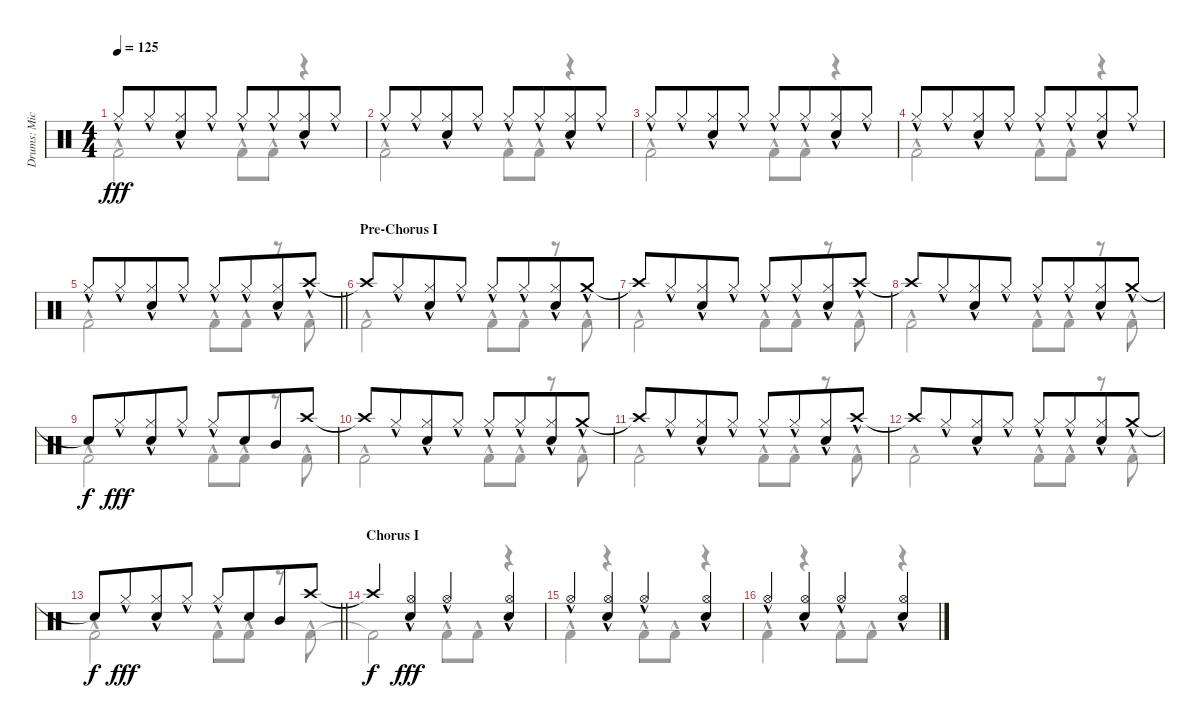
\track ("Drums: Mick" "Drums: Mic") {instrument percussion}
\staff {score}
\articulation defaults
\voice
\ts (4 4)
\tempo 125
\clef neutral
\ks c "Hi-Hat (closed)"{hac}.8{dy fff} "Hi-Hat (closed)"{hac}.8{beam merge}
("Hi-Hat (closed)"{hac} "Snare (hit) 2"{hac}).8 "Hi-Hat (closed)"{hac}.8 "Hi-Hat (closed)"{hac}.8 "Hi-Hat (closed)"{hac}.8{beam merge} ("Hi-Hat (closed)"{hac} "Snare (hit) 2"{hac}).8 "Hi-Hat (closed)"{hac}.8 |
"Hi-Hat (closed)"{hac}.8 "Hi-Hat (closed)"{hac}.8{beam merge} ("Hi-Hat (closed)"{hac} "Snare (hit) 2"{hac}).8 "Hi-Hat (closed)"{hac}.8 "Hi-Hat (closed)"{hac}.8 "Hi-Hat (closed)"{hac}.8{beam merge} ("Hi-Hat (closed)"{hac} "Snare (hit) 2"{hac}).8 "Hi-Hat (closed)"{hac}.8 |
"Hi-Hat (closed)"{hac}.8 "Hi-Hat (closed)"{hac}.8{beam merge} ("Hi-Hat (closed)"{hac} "Snare (hit) 2"{hac}).8 "Hi-Hat (closed)"{hac}.8 "Hi-Hat (closed)"{hac}.8 "Hi-Hat (closed)"{hac}.8{beam merge} ("Hi-Hat (closed)"{hac} "Snare (hit) 2"{hac}).8 "Hi-Hat (closed)"{hac}.8 |
"Hi-Hat (closed)"{hac}.8 "Hi-Hat (closed)"{hac}.8{beam merge} ("Hi-Hat (closed)"{hac} "Snare (hit) 2"{hac}).8 "Hi-Hat (closed)"{hac}.8 "Hi-Hat (closed)"{hac}.8 "Hi-Hat (closed)"{hac}.8{beam merge} ("Hi-Hat (closed)"{hac} "Snare (hit) 2"{hac}).8 "Hi-Hat (closed)"{hac}.8 |
\barLineRight lightlight "Hi-Hat (closed)"{hac}.8 "Hi-Hat (closed)"{hac}.8{beam merge}
("Hi-Hat (closed)"{hac} "Snare (hit) 2"{hac}).8 "Hi-Hat (closed)"{hac}.8 "Hi-Hat (closed)"{hac}.8 "Hi-Hat (closed)"{hac}.8{beam merge} ("Hi-Hat (closed)"{hac} "Snare (hit) 2"{hac}).8 "Crash high (hit)"{hac}.8 |
\section ("" "Pre-Chorus I")
"Crash high (hit)"{t}.8 "Hi-Hat (closed)"{hac}.8{beam merge} ("Hi-Hat (closed)"{hac} "Snare (hit) 2"{hac}).8 "Hi-Hat (closed)"{hac}.8 "Hi-Hat (closed)"{hac}.8 "Hi-Hat (closed)"{hac}.8{beam merge} ("Hi-Hat (closed)"{hac} "Snare (hit) 2"{hac}).8 "Crash medium (hit)"{hac}.8 |
"Crash high (hit)"{t}.8 "Hi-Hat (closed)"{hac}.8{beam merge} ("Hi-Hat (closed)"{hac} "Snare (hit) 2"{hac}).8 "Hi-Hat (closed)"{hac}.8 "Hi-Hat (closed)"{hac}.8 "Hi-Hat (closed)"{hac}.8{beam merge} ("Hi-Hat (closed)"{hac} "Snare (hit) 2"{hac}).8 "Crash high (hit)"{hac}.8 |
"Crash high (hit)"{t}.8 "Hi-Hat (closed)"{hac}.8{beam merge} ("Hi-Hat (closed)"{hac} "Snare (hit) 2"{hac}).8 "Hi-Hat (closed)"{hac}.8 "Hi-Hat (closed)"{hac}.8 "Hi-Hat (closed)"{hac}.8{beam merge} ("Hi-Hat (closed)"{hac} "Snare (hit) 2"{hac}).8 "Crash medium (hit)"{hac}.8 |
"Snare (hit)"{t}.8{dy f} "Hi-Hat (closed)"{hac}.8{dy fff beam merge} ("Hi-Hat (closed)"{hac} "Snare (hit) 2"{hac}).8 "Hi-Hat (closed)"{hac}.8 "Hi-Hat (closed)"{hac}.8 "Snare (hit) 2".8{beam merge} "Mid Tom (hit)".8 "Crash high (hit)".8 |
"Crash high (hit)"{t}.8 "Hi-Hat (closed)"{hac}.8{beam merge} ("Hi-Hat (closed)"{hac} "Snare (hit) 2"{hac}).8 "Hi-Hat (closed)"{hac}.8 "Hi-Hat (closed)"{hac}.8 "Hi-Hat (closed)"{hac}.8{beam merge} ("Hi-Hat (closed)"{hac} "Snare (hit) 2"{hac}).8 "Crash medium (hit)"{hac}.8 |
"Crash high (hit)"{t}.8 "Hi-Hat (closed)"{hac}.8{beam merge} ("Hi-Hat (closed)"{hac} "Snare (hit) 2"{hac}).8 "Hi-Hat (closed)"{hac}.8 "Hi-Hat (closed)"{hac}.8 "Hi-Hat (closed)"{hac}.8{beam merge} ("Hi-Hat (closed)"{hac} "Snare (hit) 2"{hac}).8 "Crash high (hit)"{hac}.8 |
"Crash high (hit)"{t}.8 "Hi-Hat (closed)"{hac}.8{beam merge} ("Hi-Hat (closed)"{hac} "Snare (hit) 2"{hac}).8 "Hi-Hat (closed)"{hac}.8 "Hi-Hat (closed)"{hac}.8 "Hi-Hat (closed)"{hac}.8{beam merge} ("Hi-Hat (closed)"{hac} "Snare (hit) 2"{hac}).8 "Crash medium (hit)"{hac}.8 |
\barLineRight lightlight "Snare (hit)"{t}.8{dy f} "Hi-Hat (closed)"{hac}.8{dy fff beam merge}
("Hi-Hat (closed)"{hac} "Snare (hit) 2"{hac}).8 "Hi-Hat (closed)"{hac}.8 "Hi-Hat (closed)"{hac}.8 "Snare (hit) 2".8{beam merge} "Mid Tom (hit)".8 "Crash high (hit)".8 |
\section ("" "Chorus I")
"Crash high (hit)"{t}.4{dy f} ("Hi-Hat (open)"{hac} "Snare (hit) 2"{hac}).4{dy fff} "Hi-Hat (open)"{hac}.4 ("Hi-Hat (open)"{hac} "Snare (hit) 2"{hac}).4 |
"Hi-Hat (open)"{hac}.4 ("Hi-Hat (open)"{hac} "Snare (hit) 2"{hac}).4 "Hi-Hat (open)"{hac}.4 ("Hi-Hat (open)"{hac} "Snare (hit) 2"{hac}).4 |
"Hi-Hat (open)"{hac}.4 ("Hi-Hat (open)"{hac} "Snare (hit) 2"{hac}).4 "Hi-Hat (open)"{hac}.4 ("Hi-Hat (open)"{hac} "Snare (hit) 2"{hac}).4
\voice
\clef neutral
\ottava regular
\simile none
\ks c "Kick (hit) 2"{hac}.2{dy fff} "Kick (hit) 2"{hac}.8 "Kick (hit) 2"{hac}.8
r.4 |
"Kick (hit) 2"{hac}.2 "Kick (hit) 2"{hac}.8 "Kick (hit) 2"{hac}.8 r.4 |
"Kick (hit) 2"{hac}.2 "Kick (hit) 2"{hac}.8 "Kick (hit) 2"{hac}.8 r.4 |
"Kick (hit) 2"{hac}.2 "Kick (hit) 2"{hac}.8 "Kick (hit) 2"{hac}.8 r.4 |
\barLineRight lightlight "Kick (hit) 2"{hac}.2 "Kick (hit) 2"{hac}.8 "Kick (hit) 2"{hac}.8
r.8 "Kick (hit) 2"{hac}.8 |
"Kick (hit) 2"{hac}.2 "Kick (hit) 2"{hac}.8 "Kick (hit) 2"{hac}.8 r.8 "Kick (hit) 2"{hac}.8 |
"Kick (hit) 2"{hac}.2 "Kick (hit) 2"{hac}.8 "Kick (hit) 2"{hac}.8 r.8 "Kick (hit) 2"{hac}.8 |
"Kick (hit) 2"{hac}.2 "Kick (hit) 2"{hac}.8 "Kick (hit) 2"{hac}.8 r.8 "Kick (hit) 2"{hac}.8 |
"Kick (hit) 2"{hac}.2 "Kick (hit) 2"{hac}.8 "Kick (hit) 2"{hac}.8 r.8 "Kick (hit) 2"{hac}.8 |
"Kick (hit) 2"{hac}.2 "Kick (hit) 2"{hac}.8 "Kick (hit) 2"{hac}.8 r.8 "Kick (hit) 2"{hac}.8 |
"Kick (hit) 2"{hac}.2 "Kick (hit) 2"{hac}.8 "Kick (hit) 2"{hac}.8 r.8 "Kick (hit) 2"{hac}.8 |
"Kick (hit) 2"{hac}.2 "Kick (hit) 2"{hac}.8 "Kick (hit) 2"{hac}.8 r.8 "Kick (hit) 2"{hac}.8 |
\barLineRight lightlight "Kick (hit) 2"{hac}.2 "Kick (hit) 2"{hac}.8 "Kick (hit) 2"{hac}.8
r.8 "Kick (hit) 2"{hac}.8 |
"Kick (hit) 2"{t}.2 "Kick (hit) 2"{hac}.8 "Kick (hit) 2"{hac}.8 r.4 |
"Kick (hit) 2"{hac}.4 r.4 "Kick (hit) 2"{hac}.8 "Kick (hit) 2"{hac}.8 r.4 |
"Kick (hit) 2"{hac}.4 r.4 "Kick (hit) 2"{hac}.8 "Kick (hit) 2"{hac}.8 r.4
